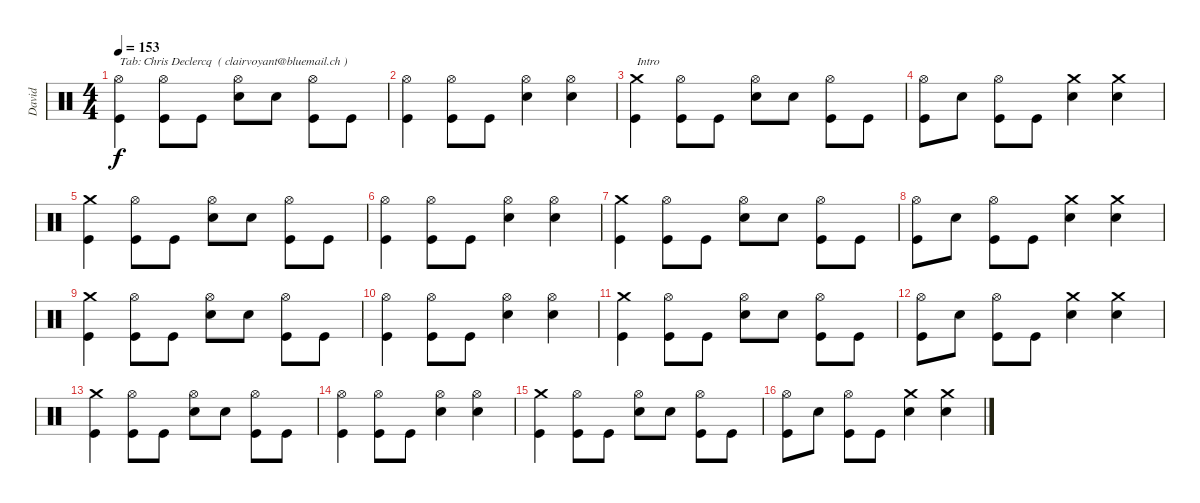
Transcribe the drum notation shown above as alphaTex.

\track ("David" "David") {instrument percussion}
\staff {score}
\articulation defaults
\ts (4 4)
\tempo 153
\clef neutral
\ks c
("Hi-Hat (open)" "Kick (hit)").4{txt "Tab: Chris Declercq  ( clairvoyant@bluemail.ch )" dy f} ("Hi-Hat (open)" "Kick (hit)").8 "Kick (hit)".8 ("Hi-Hat (open)" "Snare (hit) 2").8 "Snare (hit) 2".8 ("Hi-Hat (open)" "Kick (hit)").8 "Kick (hit)".8 |
("Hi-Hat (open)" "Kick (hit)").4 ("Hi-Hat (open)" "Kick (hit)").8 "Kick (hit)".8 ("Hi-Hat (open)" "Snare (hit) 2").4 ("Hi-Hat (open)" "Snare (hit) 2").4 |
("Crash medium (hit)" "Kick (hit)").4{txt "Intro"} ("Hi-Hat (open)" "Kick (hit)").8 "Kick (hit)".8 ("Hi-Hat (open)" "Snare (hit) 2").8 "Snare (hit) 2".8 ("Hi-Hat (open)" "Kick (hit)").8 "Kick (hit)".8 |
("Hi-Hat (open)" "Kick (hit)").8 "Snare (hit) 2".8 ("Hi-Hat (open)" "Kick (hit)").8 "Kick (hit)".8 ("Crash medium (hit)" "Snare (hit) 2").4 ("Crash medium (hit)" "Snare (hit) 2").4 |
("Crash medium (hit)" "Kick (hit)").4 ("Hi-Hat (open)" "Kick (hit)").8 "Kick (hit)".8 ("Hi-Hat (open)" "Snare (hit) 2").8 "Snare (hit) 2".8 ("Hi-Hat (open)" "Kick (hit)").8 "Kick (hit)".8 |
("Hi-Hat (open)" "Kick (hit)").4 ("Hi-Hat (open)" "Kick (hit)").8 "Kick (hit)".8 ("Hi-Hat (open)" "Snare (hit) 2").4 ("Hi-Hat (open)" "Snare (hit) 2").4 |
("Crash medium (hit)" "Kick (hit)").4 ("Hi-Hat (open)" "Kick (hit)").8 "Kick (hit)".8 ("Hi-Hat (open)" "Snare (hit) 2").8 "Snare (hit) 2".8 ("Hi-Hat (open)" "Kick (hit)").8 "Kick (hit)".8 |
("Hi-Hat (open)" "Kick (hit)").8 "Snare (hit) 2".8 ("Hi-Hat (open)" "Kick (hit)").8 "Kick (hit)".8 ("Crash medium (hit)" "Snare (hit) 2").4 ("Crash medium (hit)" "Snare (hit) 2").4 |
("Crash medium (hit)" "Kick (hit)").4 ("Hi-Hat (open)" "Kick (hit)").8 "Kick (hit)".8 ("Hi-Hat (open)" "Snare (hit) 2").8 "Snare (hit) 2".8 ("Hi-Hat (open)" "Kick (hit)").8 "Kick (hit)".8 |
("Hi-Hat (open)" "Kick (hit)").4 ("Hi-Hat (open)" "Kick (hit)").8 "Kick (hit)".8 ("Hi-Hat (open)" "Snare (hit) 2").4 ("Hi-Hat (open)" "Snare (hit) 2").4 |
("Crash medium (hit)" "Kick (hit)").4 ("Hi-Hat (open)" "Kick (hit)").8 "Kick (hit)".8 ("Hi-Hat (open)" "Snare (hit) 2").8 "Snare (hit) 2".8 ("Hi-Hat (open)" "Kick (hit)").8 "Kick (hit)".8 |
("Hi-Hat (open)" "Kick (hit)").8 "Snare (hit) 2".8 ("Hi-Hat (open)" "Kick (hit)").8 "Kick (hit)".8 ("Crash medium (hit)" "Snare (hit) 2").4 ("Crash medium (hit)" "Snare (hit) 2").4 |
("Crash medium (hit)" "Kick (hit)").4 ("Hi-Hat (open)" "Kick (hit)").8 "Kick (hit)".8 ("Hi-Hat (open)" "Snare (hit) 2").8 "Snare (hit) 2".8 ("Hi-Hat (open)" "Kick (hit)").8 "Kick (hit)".8 |
("Hi-Hat (open)" "Kick (hit)").4 ("Hi-Hat (open)" "Kick (hit)").8 "Kick (hit)".8 ("Hi-Hat (open)" "Snare (hit) 2").4 ("Hi-Hat (open)" "Snare (hit) 2").4 |
("Crash medium (hit)" "Kick (hit)").4 ("Hi-Hat (open)" "Kick (hit)").8 "Kick (hit)".8 ("Hi-Hat (open)" "Snare (hit) 2").8 "Snare (hit) 2".8 ("Hi-Hat (open)" "Kick (hit)").8 "Kick (hit)".8 |
("Hi-Hat (open)" "Kick (hit)").8 "Snare (hit) 2".8 ("Hi-Hat (open)" "Kick (hit)").8 "Kick (hit)".8 ("Crash medium (hit)" "Snare (hit) 2").4 ("Crash medium (hit)" "Snare (hit) 2").4
